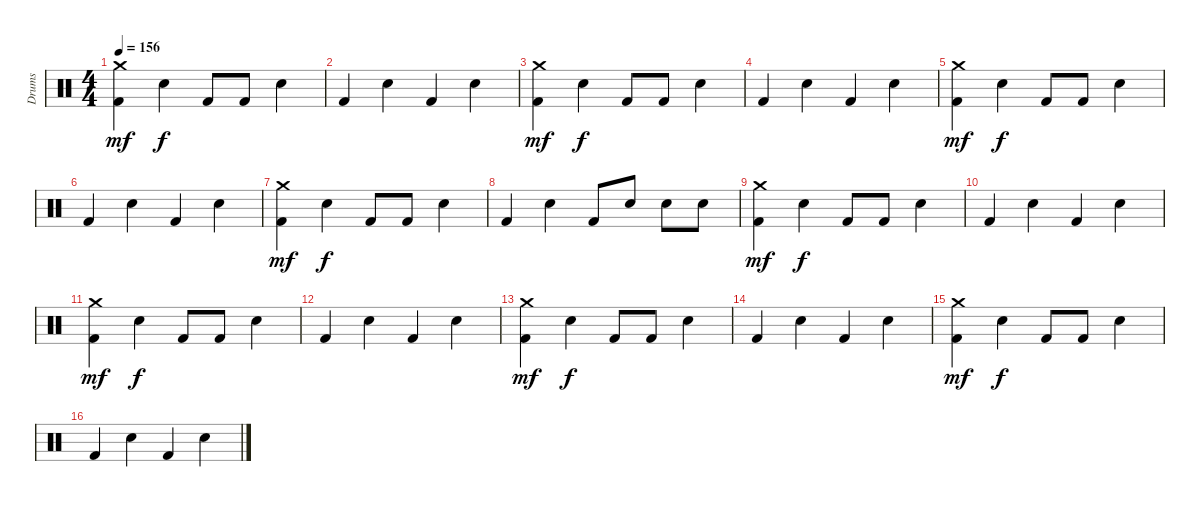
\track ("Drums" "Drums") {instrument percussion}
\staff {score}
\articulation defaults
\ts (4 4)
\tempo 156
\clef neutral
\ks c
("Crash medium (hit)" "Kick (hit) 2").4{dy mf} "Snare (hit) 2".4{dy f} "Kick (hit) 2".8 "Kick (hit) 2".8 "Snare (hit) 2".4 |
"Kick (hit) 2".4 "Snare (hit) 2".4 "Kick (hit) 2".4 "Snare (hit) 2".4 |
("Crash medium (hit)" "Kick (hit) 2").4{dy mf} "Snare (hit) 2".4{dy f} "Kick (hit) 2".8 "Kick (hit) 2".8 "Snare (hit) 2".4 |
"Kick (hit) 2".4 "Snare (hit) 2".4 "Kick (hit) 2".4 "Snare (hit) 2".4 |
("Crash medium (hit)" "Kick (hit) 2").4{dy mf} "Snare (hit) 2".4{dy f} "Kick (hit) 2".8 "Kick (hit) 2".8 "Snare (hit) 2".4 |
"Kick (hit) 2".4 "Snare (hit) 2".4 "Kick (hit) 2".4 "Snare (hit) 2".4 |
("Crash medium (hit)" "Kick (hit) 2").4{dy mf} "Snare (hit) 2".4{dy f} "Kick (hit) 2".8 "Kick (hit) 2".8 "Snare (hit) 2".4 |
"Kick (hit) 2".4 "Snare (hit) 2".4 "Kick (hit) 2".8 "Snare (hit) 2".8 "Snare (hit) 2".8 "Snare (hit) 2".8 |
("Crash medium (hit)" "Kick (hit) 2").4{dy mf} "Snare (hit) 2".4{dy f} "Kick (hit) 2".8 "Kick (hit) 2".8 "Snare (hit) 2".4 |
"Kick (hit) 2".4 "Snare (hit) 2".4 "Kick (hit) 2".4 "Snare (hit) 2".4 |
("Crash medium (hit)" "Kick (hit) 2").4{dy mf} "Snare (hit) 2".4{dy f} "Kick (hit) 2".8 "Kick (hit) 2".8 "Snare (hit) 2".4 |
"Kick (hit) 2".4 "Snare (hit) 2".4 "Kick (hit) 2".4 "Snare (hit) 2".4 |
("Crash medium (hit)" "Kick (hit) 2").4{dy mf} "Snare (hit) 2".4{dy f} "Kick (hit) 2".8 "Kick (hit) 2".8 "Snare (hit) 2".4 |
"Kick (hit) 2".4 "Snare (hit) 2".4 "Kick (hit) 2".4 "Snare (hit) 2".4 |
("Crash medium (hit)" "Kick (hit) 2").4{dy mf} "Snare (hit) 2".4{dy f} "Kick (hit) 2".8 "Kick (hit) 2".8 "Snare (hit) 2".4 |
"Kick (hit) 2".4 "Snare (hit) 2".4 "Kick (hit) 2".4 "Snare (hit) 2".4
